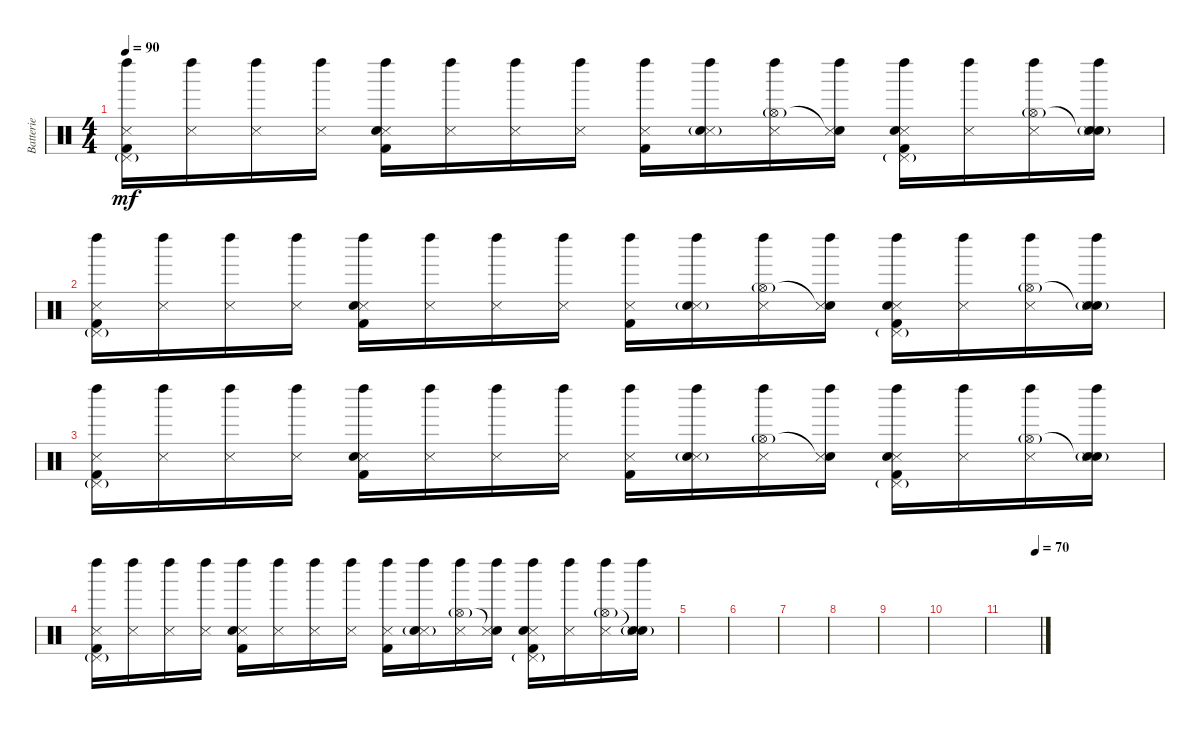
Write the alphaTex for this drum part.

\track ("Batterie" "Batterie") {instrument percussion}
\staff {score}
\articulation defaults
\ts (4 4)
\tempo 90
\clef neutral
\ks c
("Pedal Hi-Hat (hit)"{g} "Left Maraca (hit)" "Snare (side stick) 3" "Kick (hit) 2").16{dy mf} ("Left Maraca (hit)" "Snare (side stick) 3").16 ("Left Maraca (hit)" "Snare (side stick) 3").16 ("Left Maraca (hit)" "Snare (side stick) 3").16 ("Left Maraca (hit)" "Snare (side stick) 3" "Snare (hit) 2" "Kick (hit) 2").16 ("Left Maraca (hit)" "Snare (side stick) 3").16 ("Left Maraca (hit)" "Snare (side stick) 3").16 ("Left Maraca (hit)" "Snare (side stick) 3").16 ("Left Maraca (hit)" "Snare (side stick) 3" "Kick (hit) 2").16 ("Left Maraca (hit)" "Snare (side stick) 3" "Snare (hit) 2"{g}).16 ("Hi-Hat (open)"{g} "Left Maraca (hit)" "Snare (side stick) 3").16 ("Snare (hit)"{t} "Left Maraca (hit)" "Snare (side stick) 3").16 ("Pedal Hi-Hat (hit)"{g} "Left Maraca (hit)" "Snare (side stick) 3" "Snare (hit) 2" "Kick (hit) 2").16 ("Left Maraca (hit)" "Snare (side stick) 3").16 ("Hi-Hat (open)"{g} "Left Maraca (hit)" "Snare (side stick) 3").16 ("Snare (hit)"{t} "Left Maraca (hit)" "Snare (side stick) 3" "Snare (hit) 2"{g}).16 |
("Pedal Hi-Hat (hit)"{g} "Left Maraca (hit)" "Snare (side stick) 3" "Kick (hit) 2").16 ("Left Maraca (hit)" "Snare (side stick) 3").16 ("Left Maraca (hit)" "Snare (side stick) 3").16 ("Left Maraca (hit)" "Snare (side stick) 3").16 ("Left Maraca (hit)" "Snare (side stick) 3" "Snare (hit) 2" "Kick (hit) 2").16 ("Left Maraca (hit)" "Snare (side stick) 3").16 ("Left Maraca (hit)" "Snare (side stick) 3").16 ("Left Maraca (hit)" "Snare (side stick) 3").16 ("Left Maraca (hit)" "Snare (side stick) 3" "Kick (hit) 2").16 ("Left Maraca (hit)" "Snare (side stick) 3" "Snare (hit) 2"{g}).16 ("Hi-Hat (open)"{g} "Left Maraca (hit)" "Snare (side stick) 3").16 ("Snare (hit)"{t} "Left Maraca (hit)" "Snare (side stick) 3").16 ("Pedal Hi-Hat (hit)"{g} "Left Maraca (hit)" "Snare (side stick) 3" "Snare (hit) 2" "Kick (hit) 2").16 ("Left Maraca (hit)" "Snare (side stick) 3").16 ("Hi-Hat (open)"{g} "Left Maraca (hit)" "Snare (side stick) 3").16 ("Snare (hit)"{t} "Left Maraca (hit)" "Snare (side stick) 3" "Snare (hit) 2"{g}).16 |
("Pedal Hi-Hat (hit)"{g} "Left Maraca (hit)" "Snare (side stick) 3" "Kick (hit) 2").16 ("Left Maraca (hit)" "Snare (side stick) 3").16 ("Left Maraca (hit)" "Snare (side stick) 3").16 ("Left Maraca (hit)" "Snare (side stick) 3").16 ("Left Maraca (hit)" "Snare (side stick) 3" "Snare (hit) 2" "Kick (hit) 2").16 ("Left Maraca (hit)" "Snare (side stick) 3").16 ("Left Maraca (hit)" "Snare (side stick) 3").16 ("Left Maraca (hit)" "Snare (side stick) 3").16 ("Left Maraca (hit)" "Snare (side stick) 3" "Kick (hit) 2").16 ("Left Maraca (hit)" "Snare (side stick) 3" "Snare (hit) 2"{g}).16 ("Hi-Hat (open)"{g} "Left Maraca (hit)" "Snare (side stick) 3").16 ("Snare (hit)"{t} "Left Maraca (hit)" "Snare (side stick) 3").16 ("Pedal Hi-Hat (hit)"{g} "Left Maraca (hit)" "Snare (side stick) 3" "Snare (hit) 2" "Kick (hit) 2").16 ("Left Maraca (hit)" "Snare (side stick) 3").16 ("Hi-Hat (open)"{g} "Left Maraca (hit)" "Snare (side stick) 3").16 ("Snare (hit)"{t} "Left Maraca (hit)" "Snare (side stick) 3" "Snare (hit) 2"{g}).16 |
("Pedal Hi-Hat (hit)"{g} "Left Maraca (hit)" "Snare (side stick) 3" "Kick (hit) 2").16 ("Left Maraca (hit)" "Snare (side stick) 3").16 ("Left Maraca (hit)" "Snare (side stick) 3").16 ("Left Maraca (hit)" "Snare (side stick) 3").16 ("Left Maraca (hit)" "Snare (side stick) 3" "Snare (hit) 2" "Kick (hit) 2").16 ("Left Maraca (hit)" "Snare (side stick) 3").16 ("Left Maraca (hit)" "Snare (side stick) 3").16 ("Left Maraca (hit)" "Snare (side stick) 3").16 ("Left Maraca (hit)" "Snare (side stick) 3" "Kick (hit) 2").16 ("Left Maraca (hit)" "Snare (side stick) 3" "Snare (hit) 2"{g}).16 ("Hi-Hat (open)"{g} "Left Maraca (hit)" "Snare (side stick) 3").16 ("Snare (hit)"{t} "Left Maraca (hit)" "Snare (side stick) 3").16 ("Pedal Hi-Hat (hit)"{g} "Left Maraca (hit)" "Snare (side stick) 3" "Snare (hit) 2" "Kick (hit) 2").16 ("Left Maraca (hit)" "Snare (side stick) 3").16 ("Hi-Hat (open)"{g} "Left Maraca (hit)" "Snare (side stick) 3").16 ("Snare (hit)"{t} "Left Maraca (hit)" "Snare (side stick) 3" "Snare (hit) 2"{g}).16 |
|
|
|
|
|
|
\tempo (70 0.875)
